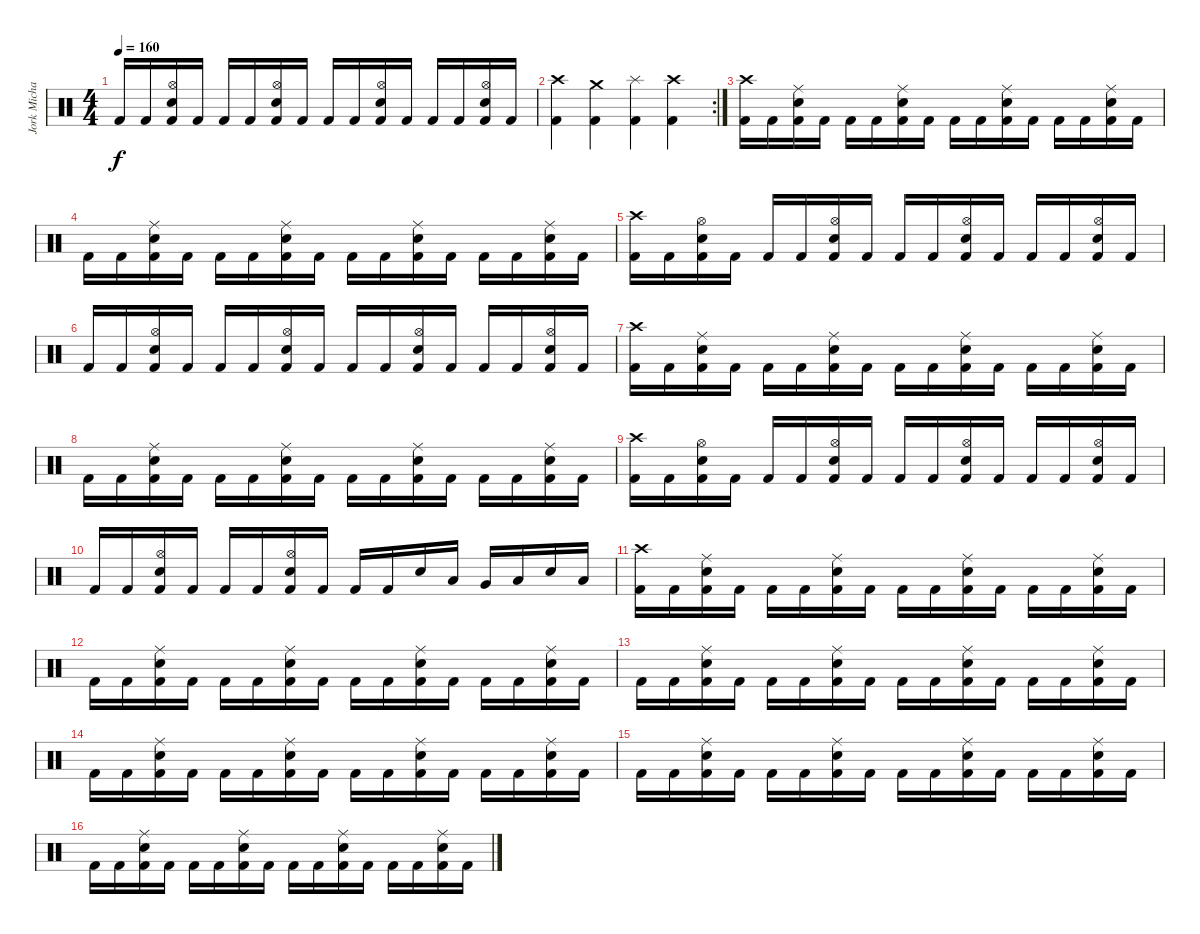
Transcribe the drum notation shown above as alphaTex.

\track ("Jork Michael" "Jork Micha") {instrument percussion}
\staff {score}
\articulation defaults
\ts (4 4)
\tempo 160
\clef neutral
\ks c "Kick (hit) 2".16{dy f} "Kick (hit) 2".16
("Hi-Hat (open)" "Electric Snare (hit)" "Kick (hit) 2").16 "Kick (hit) 2".16 "Kick (hit) 2".16 "Kick (hit) 2".16 ("Hi-Hat (open)" "Electric Snare (hit)" "Kick (hit) 2").16 "Kick (hit) 2".16 "Kick (hit) 2".16 "Kick (hit) 2".16 ("Hi-Hat (open)" "Electric Snare (hit)" "Kick (hit) 2").16 "Kick (hit) 2".16 "Kick (hit) 2".16 "Kick (hit) 2".16 ("Hi-Hat (open)" "Electric Snare (hit)" "Kick (hit) 2").16 "Kick (hit) 2".16 |
\rc 2
("Crash high (hit)" "Kick (hit) 2").4 ("Crash medium (hit)" "Kick (hit) 2").4 ("Splash (hit)" "Kick (hit) 2").4 ("Crash high (hit)" "Kick (hit) 2").4 |
("Crash high (hit)" "Kick (hit) 2").16 "Kick (hit) 2".16 ("Ride (middle)" "Electric Snare (hit)" "Kick (hit) 2").16 "Kick (hit) 2".16 "Kick (hit) 2".16 "Kick (hit) 2".16 ("Ride (middle)" "Electric Snare (hit)" "Kick (hit) 2").16 "Kick (hit) 2".16 "Kick (hit) 2".16 "Kick (hit) 2".16 ("Ride (middle)" "Electric Snare (hit)" "Kick (hit) 2").16 "Kick (hit) 2".16 "Kick (hit) 2".16 "Kick (hit) 2".16 ("Ride (middle)" "Electric Snare (hit)" "Kick (hit) 2").16 "Kick (hit) 2".16 |
"Kick (hit) 2".16 "Kick (hit) 2".16 ("Ride (middle)" "Electric Snare (hit)" "Kick (hit) 2").16 "Kick (hit) 2".16 "Kick (hit) 2".16 "Kick (hit) 2".16 ("Ride (middle)" "Electric Snare (hit)" "Kick (hit) 2").16 "Kick (hit) 2".16 "Kick (hit) 2".16 "Kick (hit) 2".16 ("Ride (middle)" "Electric Snare (hit)" "Kick (hit) 2").16 "Kick (hit) 2".16 "Kick (hit) 2".16 "Kick (hit) 2".16 ("Ride (middle)" "Electric Snare (hit)" "Kick (hit) 2").16 "Kick (hit) 2".16 |
("Crash high (hit)" "Kick (hit) 2").16 "Kick (hit) 2".16 ("Hi-Hat (open)" "Electric Snare (hit)" "Kick (hit) 2").16 "Kick (hit) 2".16 "Kick (hit) 2".16 "Kick (hit) 2".16 ("Hi-Hat (open)" "Electric Snare (hit)" "Kick (hit) 2").16 "Kick (hit) 2".16 "Kick (hit) 2".16 "Kick (hit) 2".16 ("Hi-Hat (open)" "Electric Snare (hit)" "Kick (hit) 2").16 "Kick (hit) 2".16 "Kick (hit) 2".16 "Kick (hit) 2".16 ("Hi-Hat (open)" "Electric Snare (hit)" "Kick (hit) 2").16 "Kick (hit) 2".16 |
"Kick (hit) 2".16 "Kick (hit) 2".16 ("Hi-Hat (open)" "Electric Snare (hit)" "Kick (hit) 2").16 "Kick (hit) 2".16 "Kick (hit) 2".16 "Kick (hit) 2".16 ("Hi-Hat (open)" "Electric Snare (hit)" "Kick (hit) 2").16 "Kick (hit) 2".16 "Kick (hit) 2".16 "Kick (hit) 2".16 ("Hi-Hat (open)" "Electric Snare (hit)" "Kick (hit) 2").16 "Kick (hit) 2".16 "Kick (hit) 2".16 "Kick (hit) 2".16 ("Hi-Hat (open)" "Electric Snare (hit)" "Kick (hit) 2").16 "Kick (hit) 2".16 |
("Crash high (hit)" "Kick (hit) 2").16 "Kick (hit) 2".16 ("Ride (middle)" "Electric Snare (hit)" "Kick (hit) 2").16 "Kick (hit) 2".16 "Kick (hit) 2".16 "Kick (hit) 2".16 ("Ride (middle)" "Electric Snare (hit)" "Kick (hit) 2").16 "Kick (hit) 2".16 "Kick (hit) 2".16 "Kick (hit) 2".16 ("Ride (middle)" "Electric Snare (hit)" "Kick (hit) 2").16 "Kick (hit) 2".16 "Kick (hit) 2".16 "Kick (hit) 2".16 ("Ride (middle)" "Electric Snare (hit)" "Kick (hit) 2").16 "Kick (hit) 2".16 |
"Kick (hit) 2".16 "Kick (hit) 2".16 ("Ride (middle)" "Electric Snare (hit)" "Kick (hit) 2").16 "Kick (hit) 2".16 "Kick (hit) 2".16 "Kick (hit) 2".16 ("Ride (middle)" "Electric Snare (hit)" "Kick (hit) 2").16 "Kick (hit) 2".16 "Kick (hit) 2".16 "Kick (hit) 2".16 ("Ride (middle)" "Electric Snare (hit)" "Kick (hit) 2").16 "Kick (hit) 2".16 "Kick (hit) 2".16 "Kick (hit) 2".16 ("Ride (middle)" "Electric Snare (hit)" "Kick (hit) 2").16 "Kick (hit) 2".16 |
("Crash high (hit)" "Kick (hit) 2").16 "Kick (hit) 2".16 ("Hi-Hat (open)" "Electric Snare (hit)" "Kick (hit) 2").16 "Kick (hit) 2".16 "Kick (hit) 2".16 "Kick (hit) 2".16 ("Hi-Hat (open)" "Electric Snare (hit)" "Kick (hit) 2").16 "Kick (hit) 2".16 "Kick (hit) 2".16 "Kick (hit) 2".16 ("Hi-Hat (open)" "Electric Snare (hit)" "Kick (hit) 2").16 "Kick (hit) 2".16 "Kick (hit) 2".16 "Kick (hit) 2".16 ("Hi-Hat (open)" "Electric Snare (hit)" "Kick (hit) 2").16 "Kick (hit) 2".16 |
"Kick (hit) 2".16 "Kick (hit) 2".16 ("Hi-Hat (open)" "Electric Snare (hit)" "Kick (hit) 2").16 "Kick (hit) 2".16 "Kick (hit) 2".16 "Kick (hit) 2".16 ("Hi-Hat (open)" "Electric Snare (hit)" "Kick (hit) 2").16 "Kick (hit) 2".16 "Kick (hit) 2".16 "Kick (hit) 2".16 "Electric Snare (hit)".16 "Low Floor Tom (hit)".16 "Very Low Tom (hit)".16 "Low Floor Tom (hit)".16 "Electric Snare (hit)".16 "Low Floor Tom (hit)".16 |
("Crash high (hit)" "Kick (hit) 2").16 "Kick (hit) 2".16 ("Ride (middle)" "Electric Snare (hit)" "Kick (hit) 2").16 "Kick (hit) 2".16 "Kick (hit) 2".16 "Kick (hit) 2".16 ("Ride (middle)" "Electric Snare (hit)" "Kick (hit) 2").16 "Kick (hit) 2".16 "Kick (hit) 2".16 "Kick (hit) 2".16 ("Ride (middle)" "Electric Snare (hit)" "Kick (hit) 2").16 "Kick (hit) 2".16 "Kick (hit) 2".16 "Kick (hit) 2".16 ("Ride (middle)" "Electric Snare (hit)" "Kick (hit) 2").16 "Kick (hit) 2".16 |
"Kick (hit) 2".16 "Kick (hit) 2".16 ("Ride (middle)" "Electric Snare (hit)" "Kick (hit) 2").16 "Kick (hit) 2".16 "Kick (hit) 2".16 "Kick (hit) 2".16 ("Ride (middle)" "Electric Snare (hit)" "Kick (hit) 2").16 "Kick (hit) 2".16 "Kick (hit) 2".16 "Kick (hit) 2".16 ("Ride (middle)" "Electric Snare (hit)" "Kick (hit) 2").16 "Kick (hit) 2".16 "Kick (hit) 2".16 "Kick (hit) 2".16 ("Ride (middle)" "Electric Snare (hit)" "Kick (hit) 2").16 "Kick (hit) 2".16 |
"Kick (hit) 2".16 "Kick (hit) 2".16 ("Ride (middle)" "Electric Snare (hit)" "Kick (hit) 2").16 "Kick (hit) 2".16 "Kick (hit) 2".16 "Kick (hit) 2".16 ("Ride (middle)" "Electric Snare (hit)" "Kick (hit) 2").16 "Kick (hit) 2".16 "Kick (hit) 2".16 "Kick (hit) 2".16 ("Ride (middle)" "Electric Snare (hit)" "Kick (hit) 2").16 "Kick (hit) 2".16 "Kick (hit) 2".16 "Kick (hit) 2".16 ("Ride (middle)" "Electric Snare (hit)" "Kick (hit) 2").16 "Kick (hit) 2".16 |
"Kick (hit) 2".16 "Kick (hit) 2".16 ("Ride (middle)" "Electric Snare (hit)" "Kick (hit) 2").16 "Kick (hit) 2".16 "Kick (hit) 2".16 "Kick (hit) 2".16 ("Ride (middle)" "Electric Snare (hit)" "Kick (hit) 2").16 "Kick (hit) 2".16 "Kick (hit) 2".16 "Kick (hit) 2".16 ("Ride (middle)" "Electric Snare (hit)" "Kick (hit) 2").16 "Kick (hit) 2".16 "Kick (hit) 2".16 "Kick (hit) 2".16 ("Ride (middle)" "Electric Snare (hit)" "Kick (hit) 2").16 "Kick (hit) 2".16 |
"Kick (hit) 2".16 "Kick (hit) 2".16 ("Ride (middle)" "Electric Snare (hit)" "Kick (hit) 2").16 "Kick (hit) 2".16 "Kick (hit) 2".16 "Kick (hit) 2".16 ("Ride (middle)" "Electric Snare (hit)" "Kick (hit) 2").16 "Kick (hit) 2".16 "Kick (hit) 2".16 "Kick (hit) 2".16 ("Ride (middle)" "Electric Snare (hit)" "Kick (hit) 2").16 "Kick (hit) 2".16 "Kick (hit) 2".16 "Kick (hit) 2".16 ("Ride (middle)" "Electric Snare (hit)" "Kick (hit) 2").16 "Kick (hit) 2".16 |
"Kick (hit) 2".16 "Kick (hit) 2".16 ("Ride (middle)" "Electric Snare (hit)" "Kick (hit) 2").16 "Kick (hit) 2".16 "Kick (hit) 2".16 "Kick (hit) 2".16 ("Ride (middle)" "Electric Snare (hit)" "Kick (hit) 2").16 "Kick (hit) 2".16 "Kick (hit) 2".16 "Kick (hit) 2".16 ("Ride (middle)" "Electric Snare (hit)" "Kick (hit) 2").16 "Kick (hit) 2".16 "Kick (hit) 2".16 "Kick (hit) 2".16 ("Ride (middle)" "Electric Snare (hit)" "Kick (hit) 2").16 "Kick (hit) 2".16
